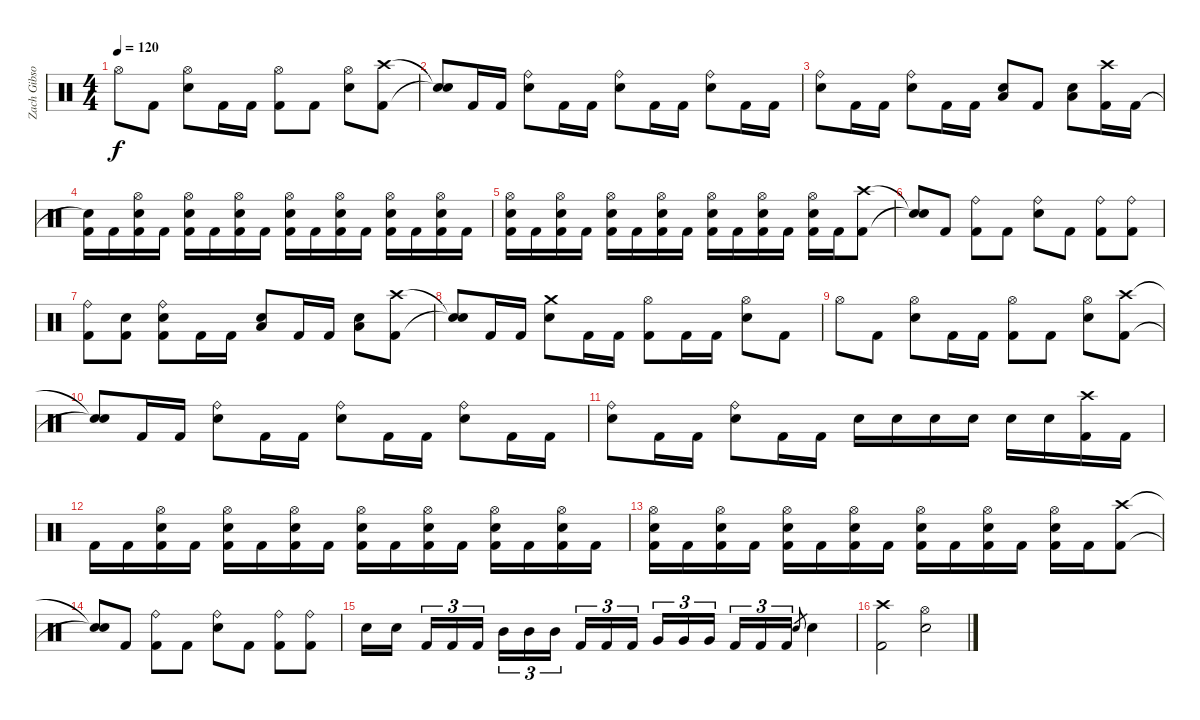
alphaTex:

\track ("Zach Gibson (Drums)" "Zach Gibso") {instrument percussion}
\staff {score}
\articulation defaults
\ts (4 4)
\tempo 120
\clef neutral
\ks c "Hi-Hat (open)".8{dy f} "Kick (hit) 2".8
("Hi-Hat (open)" "Snare (hit) 2").8 "Kick (hit) 2".16 "Kick (hit) 2".16 ("Kick (hit) 2" "Hi-Hat (open)").8 "Kick (hit) 2".8 ("Hi-Hat (open)" "Snare (hit) 2").8 ("Crash high (hit)" "Kick (hit) 2").8 |
("Snare (hit)"{t} "Snare (hit)"{t}).8 "Kick (hit) 2".16 "Kick (hit) 2".16 ("Ride (bell)" "Snare (hit) 2").8 "Kick (hit) 2".16 "Kick (hit) 2".16 ("Ride (bell)" "Snare (hit) 2").8 "Kick (hit) 2".16 "Kick (hit) 2".16 ("Ride (bell)" "Snare (hit) 2").8 "Kick (hit) 2".16 "Kick (hit) 2".16 |
("Ride (bell)" "Snare (hit) 2").8 "Kick (hit) 2".16 "Kick (hit) 2".16 ("Ride (bell)" "Snare (hit) 2").8 "Kick (hit) 2".16 "Kick (hit) 2".16 ("Low Floor Tom (hit)" "Snare (hit) 2").8 "Kick (hit) 2".8 ("Low Floor Tom (hit)" "Snare (hit) 2").8 ("Crash high (hit)" "Kick (hit) 2").16 "Kick (hit) 2".16 |
("Snare (hit)"{t} "Kick (hit) 2").16 "Kick (hit) 2".16 ("Hi-Hat (open)" "Snare (hit) 2" "Kick (hit) 2").16 "Kick (hit) 2".16 ("Hi-Hat (open)" "Snare (hit) 2" "Kick (hit) 2").16 "Kick (hit) 2".16 ("Hi-Hat (open)" "Snare (hit) 2" "Kick (hit) 2").16 "Kick (hit) 2".16 ("Hi-Hat (open)" "Snare (hit) 2" "Kick (hit) 2").16 "Kick (hit) 2".16 ("Hi-Hat (open)" "Snare (hit) 2" "Kick (hit) 2").16 "Kick (hit) 2".16 ("Hi-Hat (open)" "Snare (hit) 2" "Kick (hit) 2").16 "Kick (hit) 2".16 ("Hi-Hat (open)" "Snare (hit) 2" "Kick (hit) 2").16 "Kick (hit) 2".16 |
("Hi-Hat (open)" "Snare (hit) 2" "Kick (hit) 2").16 "Kick (hit) 2".16 ("Hi-Hat (open)" "Snare (hit) 2" "Kick (hit) 2").16 "Kick (hit) 2".16 ("Hi-Hat (open)" "Snare (hit) 2" "Kick (hit) 2").16 "Kick (hit) 2".16 ("Hi-Hat (open)" "Snare (hit) 2" "Kick (hit) 2").16 "Kick (hit) 2".16 ("Hi-Hat (open)" "Snare (hit) 2" "Kick (hit) 2").16 "Kick (hit) 2".16 ("Hi-Hat (open)" "Snare (hit) 2" "Kick (hit) 2").16 "Kick (hit) 2".16 ("Hi-Hat (open)" "Snare (hit) 2" "Kick (hit) 2").16 "Kick (hit) 2".16 ("Crash high (hit)" "Kick (hit) 2").8 |
("Snare (hit)"{t} "Snare (hit)"{t}).8 "Kick (hit) 2".8 ("Ride (bell)" "Kick (hit) 2").8 "Kick (hit) 2".8 ("Ride (bell)" "Snare (hit) 2").8 "Kick (hit) 2".8 ("Ride (bell)" "Kick (hit) 2").8 ("Ride (bell)" "Kick (hit) 2").8 |
("Ride (bell)" "Kick (hit) 2").8 ("Snare (hit) 2" "Kick (hit) 2").8 ("Snare (hit) 2" "Ride (bell)" "Kick (hit) 2").8 "Kick (hit) 2".16 "Kick (hit) 2".16 ("Low Floor Tom (hit)" "Snare (hit) 2").8 "Kick (hit) 2".16 "Kick (hit) 2".16 ("Low Floor Tom (hit)" "Snare (hit) 2").8 ("Crash high (hit)" "Kick (hit) 2").8 |
("Snare (hit)"{t} "Snare (hit)"{t}).8 "Kick (hit) 2".16 "Kick (hit) 2".16 ("Crash medium (hit)" "Snare (hit) 2").8 "Kick (hit) 2".16 "Kick (hit) 2".16 ("Kick (hit) 2" "Hi-Hat (open)").8 "Kick (hit) 2".16 "Kick (hit) 2".16 ("Hi-Hat (open)" "Snare (hit) 2").8 "Kick (hit) 2".8 |
"Hi-Hat (open)".8 "Kick (hit) 2".8 ("Hi-Hat (open)" "Snare (hit) 2").8 "Kick (hit) 2".16 "Kick (hit) 2".16 ("Kick (hit) 2" "Hi-Hat (open)").8 "Kick (hit) 2".8 ("Hi-Hat (open)" "Snare (hit) 2").8 ("Crash high (hit)" "Kick (hit) 2").8 |
("Snare (hit)"{t} "Snare (hit)"{t}).8 "Kick (hit) 2".16 "Kick (hit) 2".16 ("Ride (bell)" "Snare (hit) 2").8 "Kick (hit) 2".16 "Kick (hit) 2".16 ("Ride (bell)" "Snare (hit) 2").8 "Kick (hit) 2".16 "Kick (hit) 2".16 ("Ride (bell)" "Snare (hit) 2").8 "Kick (hit) 2".16 "Kick (hit) 2".16 |
("Ride (bell)" "Snare (hit) 2").8 "Kick (hit) 2".16 "Kick (hit) 2".16 ("Ride (bell)" "Snare (hit) 2").8 "Kick (hit) 2".16 "Kick (hit) 2".16 "Snare (hit) 2".16 "Snare (hit) 2".16 "Snare (hit) 2".16 "Snare (hit) 2".16 "Snare (hit) 2".16 "Snare (hit) 2".16 ("Crash high (hit)" "Kick (hit) 2").16 "Kick (hit) 2".16 |
"Kick (hit) 2".16 "Kick (hit) 2".16 ("Hi-Hat (open)" "Snare (hit) 2" "Kick (hit) 2").16 "Kick (hit) 2".16 ("Hi-Hat (open)" "Snare (hit) 2" "Kick (hit) 2").16 "Kick (hit) 2".16 ("Hi-Hat (open)" "Snare (hit) 2" "Kick (hit) 2").16 "Kick (hit) 2".16 ("Hi-Hat (open)" "Snare (hit) 2" "Kick (hit) 2").16 "Kick (hit) 2".16 ("Hi-Hat (open)" "Snare (hit) 2" "Kick (hit) 2").16 "Kick (hit) 2".16 ("Hi-Hat (open)" "Snare (hit) 2" "Kick (hit) 2").16 "Kick (hit) 2".16 ("Hi-Hat (open)" "Snare (hit) 2" "Kick (hit) 2").16 "Kick (hit) 2".16 |
("Hi-Hat (open)" "Snare (hit) 2" "Kick (hit) 2").16 "Kick (hit) 2".16 ("Hi-Hat (open)" "Snare (hit) 2" "Kick (hit) 2").16 "Kick (hit) 2".16 ("Hi-Hat (open)" "Snare (hit) 2" "Kick (hit) 2").16 "Kick (hit) 2".16 ("Hi-Hat (open)" "Snare (hit) 2" "Kick (hit) 2").16 "Kick (hit) 2".16 ("Hi-Hat (open)" "Snare (hit) 2" "Kick (hit) 2").16 "Kick (hit) 2".16 ("Hi-Hat (open)" "Snare (hit) 2" "Kick (hit) 2").16 "Kick (hit) 2".16 ("Hi-Hat (open)" "Snare (hit) 2" "Kick (hit) 2").16 "Kick (hit) 2".16 ("Crash high (hit)" "Kick (hit) 2").8 |
("Snare (hit)"{t} "Snare (hit)"{t}).8 "Kick (hit) 2".8 ("Ride (bell)" "Kick (hit) 2").8 "Kick (hit) 2".8 ("Ride (bell)" "Snare (hit) 2").8 "Kick (hit) 2".8 ("Ride (bell)" "Kick (hit) 2").8 ("Ride (bell)" "Kick (hit) 2").8 |
"Snare (hit) 2".16 "Snare (hit) 2".16 "Kick (hit) 2".16{tu (3 2)} "Kick (hit) 2".16{tu (3 2)} "Kick (hit) 2".16{tu (3 2)} "Mid Tom (hit)".16{tu (3 2)} "Mid Tom (hit)".16{tu (3 2)} "Mid Tom (hit)".16{tu (3 2)} "Kick (hit) 2".16{tu (3 2)} "Kick (hit) 2".16{tu (3 2)} "Kick (hit) 2".16{tu (3 2)} "Very Low Tom (hit)".16{tu (3 2)} "Very Low Tom (hit)".16{tu (3 2)} "Very Low Tom (hit)".16{tu (3 2)} "Kick (hit) 2".16{tu (3 2)} "Kick (hit) 2".16{tu (3 2)} "Kick (hit) 2".16{tu (3 2)} "Snare (hit) 2".8{gr} "Snare (hit) 2".4 |
("Crash high (hit)" "Kick (hit) 2").2 ("Hi-Hat (open)" "Snare (hit) 2").2
